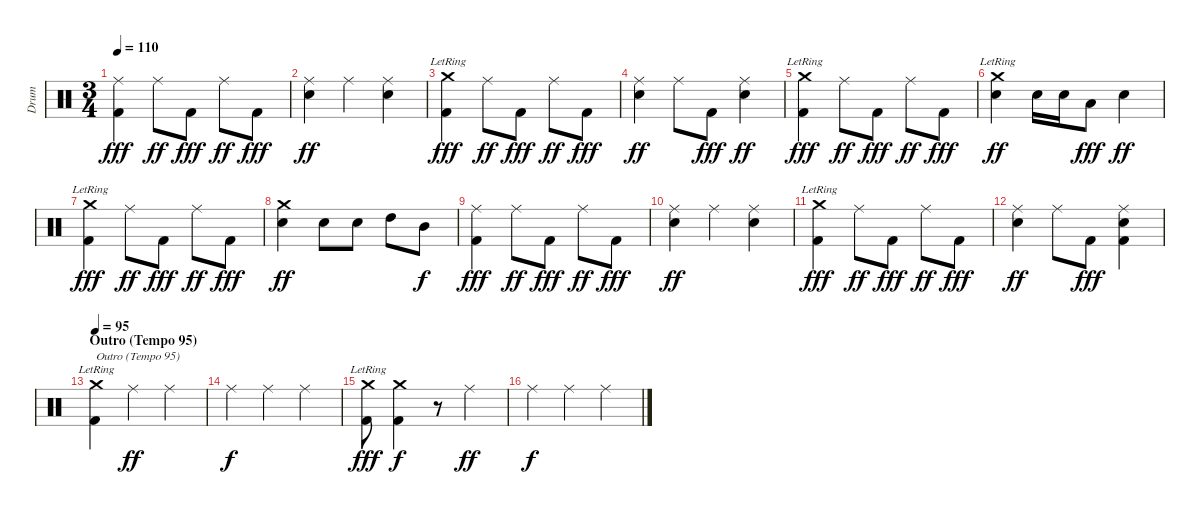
\track ("Drum" "Drum") {instrument percussion}
\staff {score}
\articulation defaults
\ts (3 4)
\tempo 110
\clef neutral
\ks c
("Ride (middle)" "Kick (hit) 2").4{dy fff} "Ride (middle)".8{dy ff} "Kick (hit) 2".8{dy fff} "Ride (middle)".8{dy ff} "Kick (hit) 2".8{dy fff} |
("Ride (middle)" "Snare (hit) 2").4{dy ff} "Ride (middle)".4 ("Ride (middle)" "Snare (hit) 2").4 |
("Crash medium (hit)"{lr} "Kick (hit) 2").4{dy fff} "Ride (middle)".8{dy ff} "Kick (hit) 2".8{dy fff} "Ride (middle)".8{dy ff} "Kick (hit) 2".8{dy fff} |
("Ride (middle)" "Snare (hit) 2").4{dy ff} "Ride (middle)".8 "Kick (hit) 2".8{dy fff} ("Ride (middle)" "Snare (hit) 2").4{dy ff} |
("Crash medium (hit)"{lr} "Kick (hit) 2").4{dy fff} "Ride (middle)".8{dy ff} "Kick (hit) 2".8{dy fff} "Ride (middle)".8{dy ff} "Kick (hit) 2".8{dy fff} |
("Crash medium (hit)"{lr} "Snare (hit) 2").4{dy ff} "Snare (hit) 2".16 "Snare (hit) 2".16 "Low Tom (hit)".8{dy fff} "Snare (hit) 2".4{dy ff} |
("Crash medium (hit)"{lr} "Kick (hit) 2").4{dy fff} "Ride (middle)".8{dy ff} "Kick (hit) 2".8{dy fff} "Ride (middle)".8{dy ff} "Kick (hit) 2".8{dy fff} |
("Crash medium (hit)" "Snare (hit) 2").4{dy ff} "Snare (hit) 2".8 "Snare (hit) 2".8 "High Tom (hit)".8 "Mid Tom (hit)".8{dy f} |
("Ride (middle)" "Kick (hit) 2").4{dy fff} "Ride (middle)".8{dy ff} "Kick (hit) 2".8{dy fff} "Ride (middle)".8{dy ff} "Kick (hit) 2".8{dy fff} |
("Ride (middle)" "Snare (hit) 2").4{dy ff} "Ride (middle)".4 ("Ride (middle)" "Snare (hit) 2").4 |
("Crash medium (hit)"{lr} "Kick (hit) 2").4{dy fff} "Ride (middle)".8{dy ff} "Kick (hit) 2".8{dy fff} "Ride (middle)".8{dy ff} "Kick (hit) 2".8{dy fff} |
("Ride (middle)" "Snare (hit) 2").4{dy ff} "Ride (middle)".8 "Kick (hit) 2".8{dy fff} ("Ride (middle)" "Snare (hit) 2" "Kick (hit) 2").4 |
\section ("" "Outro (Tempo 95)")
\tempo 95
("Crash medium (hit)"{lr} "Kick (hit) 2").4{txt "Outro (Tempo 95)"} "Ride (middle)".4{dy ff} "Ride (middle)".4 |
"Ride (middle)".4{dy f} "Ride (middle)".4 "Ride (middle)".4 |
("Crash medium (hit)"{lr} "Kick (hit) 2").8{dy fff} ("Crash medium (hit)" "Kick (hit) 2").4{dy f} r.8 "Ride (middle)".4{dy ff} |
"Ride (middle)".4{dy f} "Ride (middle)".4 "Ride (middle)".4
